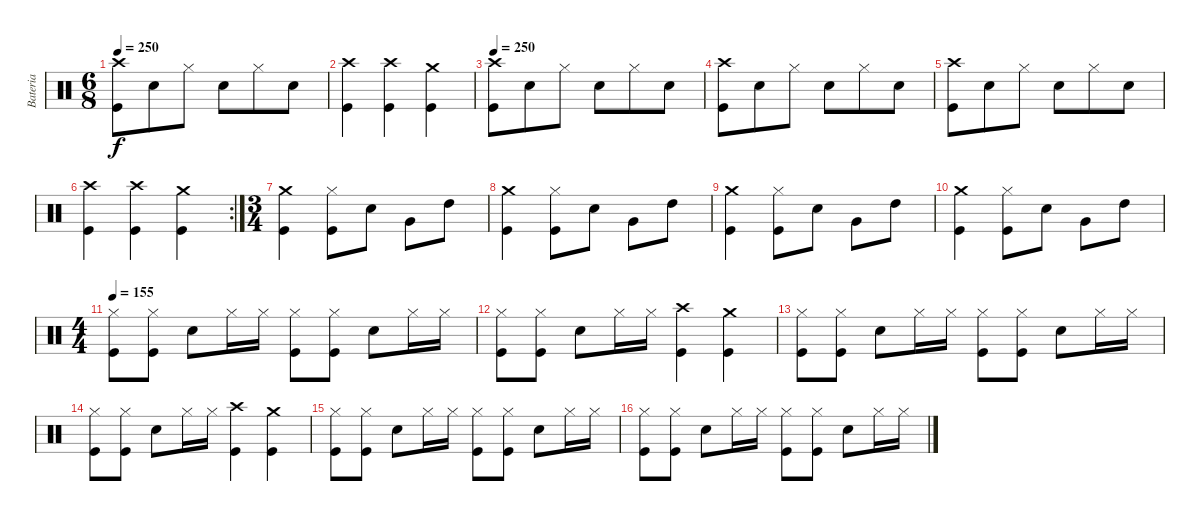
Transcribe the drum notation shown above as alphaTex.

\track ("Bateria" "Bateria") {instrument percussion}
\staff {score}
\articulation defaults
\ts (6 8)
\tempo 250
\clef neutral
\ks c
("Crash high (hit)" "Kick (hit)").8{dy f} "Snare (hit) 2".8 "Hi-Hat (closed)".8 "Snare (hit) 2".8 "Hi-Hat (closed)".8 "Snare (hit) 2".8 |
("Crash high (hit)" "Kick (hit)").4 ("Crash high (hit)" "Kick (hit)").4 ("Crash medium (hit)" "Kick (hit)").4 |
\tempo 250
("Crash high (hit)" "Kick (hit)").8 "Snare (hit) 2".8 "Hi-Hat (closed)".8 "Snare (hit) 2".8 "Hi-Hat (closed)".8 "Snare (hit) 2".8 |
("Crash high (hit)" "Kick (hit)").8 "Snare (hit) 2".8 "Hi-Hat (closed)".8 "Snare (hit) 2".8 "Hi-Hat (closed)".8 "Snare (hit) 2".8 |
("Crash high (hit)" "Kick (hit)").8 "Snare (hit) 2".8 "Hi-Hat (closed)".8 "Snare (hit) 2".8 "Hi-Hat (closed)".8 "Snare (hit) 2".8 |
\rc 2
("Crash high (hit)" "Kick (hit)").4 ("Crash high (hit)" "Kick (hit)").4 ("Crash medium (hit)" "Kick (hit)").4 |
\ts (3 4)
("Crash medium (hit)" "Kick (hit)").4 ("Hi-Hat (closed)" "Kick (hit)").8 "Snare (hit) 2".8 "Very Low Tom (hit)".8 "High Tom (hit)".8 |
("Crash medium (hit)" "Kick (hit)").4 ("Hi-Hat (closed)" "Kick (hit)").8 "Snare (hit) 2".8 "Very Low Tom (hit)".8 "High Tom (hit)".8 |
("Crash medium (hit)" "Kick (hit)").4 ("Hi-Hat (closed)" "Kick (hit)").8 "Snare (hit) 2".8 "Very Low Tom (hit)".8 "High Tom (hit)".8 |
("Crash medium (hit)" "Kick (hit)").4 ("Hi-Hat (closed)" "Kick (hit)").8 "Snare (hit) 2".8 "Very Low Tom (hit)".8 "High Tom (hit)".8 |
\ts (4 4)
\tempo 200
\tempo 155
("Hi-Hat (closed)" "Kick (hit)").8 ("Hi-Hat (closed)" "Kick (hit)").8 "Snare (hit) 2".8 "Hi-Hat (closed)".16 "Hi-Hat (closed)".16 ("Hi-Hat (closed)" "Kick (hit)").8 ("Hi-Hat (closed)" "Kick (hit)").8 "Snare (hit) 2".8 "Hi-Hat (closed)".16 "Hi-Hat (closed)".16 |
("Hi-Hat (closed)" "Kick (hit)").8 ("Hi-Hat (closed)" "Kick (hit)").8 "Snare (hit) 2".8 "Hi-Hat (closed)".16 "Hi-Hat (closed)".16 ("Crash high (hit)" "Kick (hit)").4 ("Crash medium (hit)" "Kick (hit)").4 |
("Hi-Hat (closed)" "Kick (hit)").8 ("Hi-Hat (closed)" "Kick (hit)").8 "Snare (hit) 2".8 "Hi-Hat (closed)".16 "Hi-Hat (closed)".16 ("Hi-Hat (closed)" "Kick (hit)").8 ("Hi-Hat (closed)" "Kick (hit)").8 "Snare (hit) 2".8 "Hi-Hat (closed)".16 "Hi-Hat (closed)".16 |
("Hi-Hat (closed)" "Kick (hit)").8 ("Hi-Hat (closed)" "Kick (hit)").8 "Snare (hit) 2".8 "Hi-Hat (closed)".16 "Hi-Hat (closed)".16 ("Crash high (hit)" "Kick (hit)").4 ("Crash medium (hit)" "Kick (hit)").4 |
("Hi-Hat (closed)" "Kick (hit)").8 ("Hi-Hat (closed)" "Kick (hit)").8 "Snare (hit) 2".8 "Hi-Hat (closed)".16 "Hi-Hat (closed)".16 ("Hi-Hat (closed)" "Kick (hit)").8 ("Hi-Hat (closed)" "Kick (hit)").8 "Snare (hit) 2".8 "Hi-Hat (closed)".16 "Hi-Hat (closed)".16 |
("Hi-Hat (closed)" "Kick (hit)").8 ("Hi-Hat (closed)" "Kick (hit)").8 "Snare (hit) 2".8 "Hi-Hat (closed)".16 "Hi-Hat (closed)".16 ("Hi-Hat (closed)" "Kick (hit)").8 ("Hi-Hat (closed)" "Kick (hit)").8 "Snare (hit) 2".8 "Hi-Hat (closed)".16 "Hi-Hat (closed)".16
